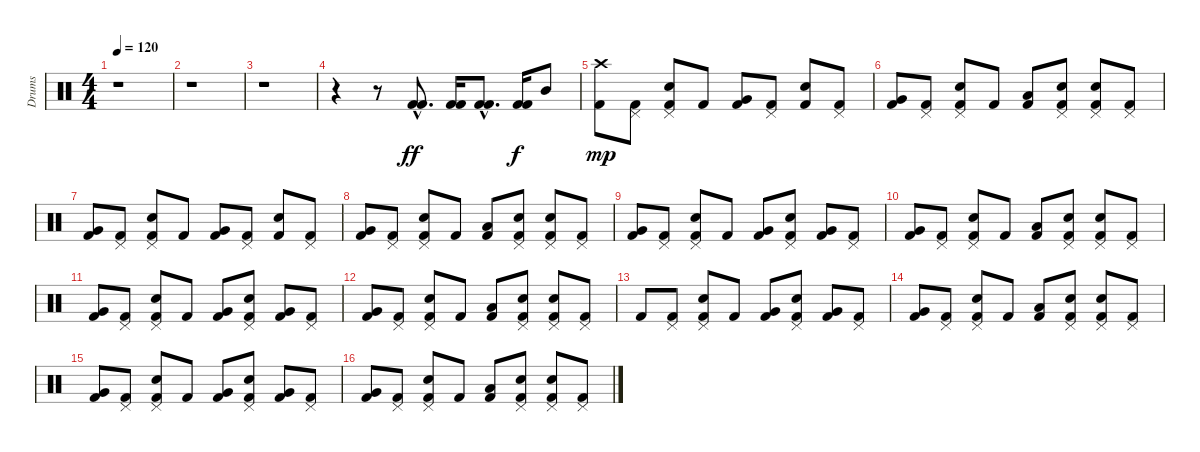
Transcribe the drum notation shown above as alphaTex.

\track ("Drums" "Drums") {instrument percussion}
\staff {score}
\articulation defaults
\ts (4 4)
\tempo 120
\clef neutral
\ks c
r.1{dy ff} |
r.1 |
r.1 |
r.4 r.8 ("Kick (hit) 2"{hac} "Kick (hit) 2"{hac}).8{d volume 16} ("Kick (hit) 2" "Kick (hit) 2").16 ("Kick (hit) 2"{hac} "Kick (hit) 2"{hac}).8{d} ("Kick (hit) 2" "Kick (hit) 2").16{dy f} "Mid Tom (hit)".8 |
("Crash high (hit)" "Kick (hit) 2").8{dy mp volume 13} ("Pedal Hi-Hat (hit)" "Kick (hit) 2").8 ("Pedal Hi-Hat (hit)" "Electric Snare (hit)" "Kick (hit) 2").8 "Kick (hit) 2".8 ("Very Low Tom (hit)" "Kick (hit) 2").8 ("Pedal Hi-Hat (hit)" "Kick (hit) 2").8 ("Electric Snare (hit)" "Kick (hit) 2").8 ("Pedal Hi-Hat (hit)" "Kick (hit) 2").8 |
("Very Low Tom (hit)" "Kick (hit) 2").8 ("Pedal Hi-Hat (hit)" "Kick (hit) 2").8 ("Pedal Hi-Hat (hit)" "Electric Snare (hit)" "Kick (hit) 2").8 "Kick (hit) 2".8 ("Low Tom (hit)" "Kick (hit) 2").8 ("Pedal Hi-Hat (hit)" "Electric Snare (hit)" "Kick (hit) 2").8 ("Pedal Hi-Hat (hit)" "Electric Snare (hit)" "Kick (hit) 2").8 ("Pedal Hi-Hat (hit)" "Kick (hit) 2").8 |
("Very Low Tom (hit)" "Kick (hit) 2").8 ("Pedal Hi-Hat (hit)" "Kick (hit) 2").8 ("Pedal Hi-Hat (hit)" "Electric Snare (hit)" "Kick (hit) 2").8 "Kick (hit) 2".8 ("Very Low Tom (hit)" "Kick (hit) 2").8 ("Pedal Hi-Hat (hit)" "Kick (hit) 2").8 ("Electric Snare (hit)" "Kick (hit) 2").8 ("Pedal Hi-Hat (hit)" "Kick (hit) 2").8 |
("Very Low Tom (hit)" "Kick (hit) 2").8 ("Pedal Hi-Hat (hit)" "Kick (hit) 2").8 ("Pedal Hi-Hat (hit)" "Electric Snare (hit)" "Kick (hit) 2").8 "Kick (hit) 2".8 ("Low Tom (hit)" "Kick (hit) 2").8 ("Pedal Hi-Hat (hit)" "Electric Snare (hit)" "Kick (hit) 2").8 ("Pedal Hi-Hat (hit)" "Electric Snare (hit)" "Kick (hit) 2").8 ("Pedal Hi-Hat (hit)" "Kick (hit) 2").8 |
("Very Low Tom (hit)" "Kick (hit) 2").8 ("Pedal Hi-Hat (hit)" "Kick (hit) 2").8 ("Pedal Hi-Hat (hit)" "Electric Snare (hit)" "Kick (hit) 2").8 "Kick (hit) 2".8 ("Very Low Tom (hit)" "Kick (hit) 2").8 ("Pedal Hi-Hat (hit)" "Electric Snare (hit)" "Kick (hit) 2").8 ("Very Low Tom (hit)" "Kick (hit) 2").8 ("Pedal Hi-Hat (hit)" "Kick (hit) 2").8 |
("Very Low Tom (hit)" "Kick (hit) 2").8 ("Pedal Hi-Hat (hit)" "Kick (hit) 2").8 ("Pedal Hi-Hat (hit)" "Electric Snare (hit)" "Kick (hit) 2").8 "Kick (hit) 2".8 ("Low Tom (hit)" "Kick (hit) 2").8 ("Pedal Hi-Hat (hit)" "Electric Snare (hit)" "Kick (hit) 2").8 ("Pedal Hi-Hat (hit)" "Electric Snare (hit)" "Kick (hit) 2").8 ("Pedal Hi-Hat (hit)" "Kick (hit) 2").8 |
("Very Low Tom (hit)" "Kick (hit) 2").8 ("Pedal Hi-Hat (hit)" "Kick (hit) 2").8 ("Pedal Hi-Hat (hit)" "Electric Snare (hit)" "Kick (hit) 2").8 "Kick (hit) 2".8 ("Very Low Tom (hit)" "Kick (hit) 2").8 ("Pedal Hi-Hat (hit)" "Electric Snare (hit)" "Kick (hit) 2").8 ("Very Low Tom (hit)" "Kick (hit) 2").8 ("Pedal Hi-Hat (hit)" "Kick (hit) 2").8 |
("Very Low Tom (hit)" "Kick (hit) 2").8 ("Pedal Hi-Hat (hit)" "Kick (hit) 2").8 ("Pedal Hi-Hat (hit)" "Electric Snare (hit)" "Kick (hit) 2").8 "Kick (hit) 2".8 ("Low Tom (hit)" "Kick (hit) 2").8 ("Pedal Hi-Hat (hit)" "Electric Snare (hit)" "Kick (hit) 2").8 ("Pedal Hi-Hat (hit)" "Electric Snare (hit)" "Kick (hit) 2").8 ("Pedal Hi-Hat (hit)" "Kick (hit) 2").8 |
"Kick (hit) 2".8{volume 13} ("Pedal Hi-Hat (hit)" "Kick (hit) 2").8 ("Pedal Hi-Hat (hit)" "Electric Snare (hit)" "Kick (hit) 2").8 "Kick (hit) 2".8 ("Very Low Tom (hit)" "Kick (hit) 2").8 ("Pedal Hi-Hat (hit)" "Electric Snare (hit)" "Kick (hit) 2").8 ("Very Low Tom (hit)" "Kick (hit) 2").8 ("Pedal Hi-Hat (hit)" "Kick (hit) 2").8 |
("Very Low Tom (hit)" "Kick (hit) 2").8 ("Pedal Hi-Hat (hit)" "Kick (hit) 2").8 ("Pedal Hi-Hat (hit)" "Electric Snare (hit)" "Kick (hit) 2").8 "Kick (hit) 2".8 ("Low Tom (hit)" "Kick (hit) 2").8 ("Pedal Hi-Hat (hit)" "Electric Snare (hit)" "Kick (hit) 2").8 ("Pedal Hi-Hat (hit)" "Electric Snare (hit)" "Kick (hit) 2").8 ("Pedal Hi-Hat (hit)" "Kick (hit) 2").8 |
("Very Low Tom (hit)" "Kick (hit) 2").8 ("Pedal Hi-Hat (hit)" "Kick (hit) 2").8 ("Pedal Hi-Hat (hit)" "Electric Snare (hit)" "Kick (hit) 2").8 "Kick (hit) 2".8 ("Very Low Tom (hit)" "Kick (hit) 2").8 ("Pedal Hi-Hat (hit)" "Electric Snare (hit)" "Kick (hit) 2").8 ("Very Low Tom (hit)" "Kick (hit) 2").8 ("Pedal Hi-Hat (hit)" "Kick (hit) 2").8 |
("Very Low Tom (hit)" "Kick (hit) 2").8 ("Pedal Hi-Hat (hit)" "Kick (hit) 2").8 ("Pedal Hi-Hat (hit)" "Electric Snare (hit)" "Kick (hit) 2").8 "Kick (hit) 2".8 ("Low Tom (hit)" "Kick (hit) 2").8 ("Pedal Hi-Hat (hit)" "Electric Snare (hit)" "Kick (hit) 2").8 ("Pedal Hi-Hat (hit)" "Electric Snare (hit)" "Kick (hit) 2").8 ("Pedal Hi-Hat (hit)" "Kick (hit) 2").8
